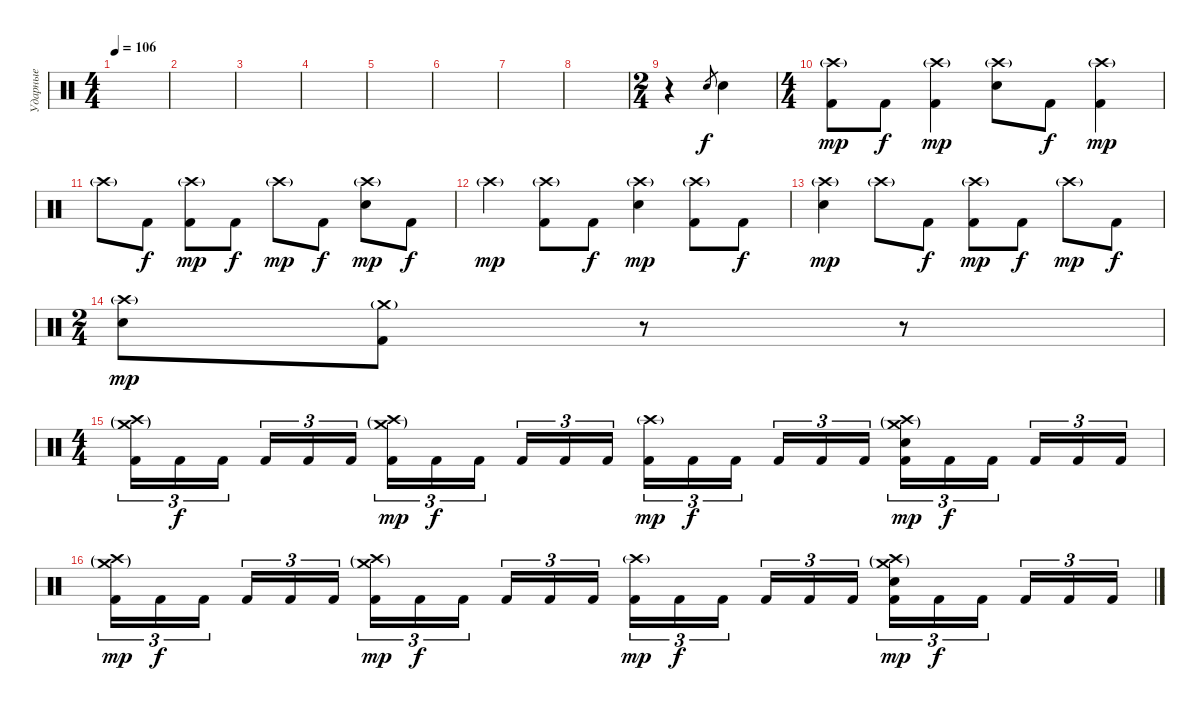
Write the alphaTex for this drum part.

\track ("Ударные" "Ударные") {instrument percussion}
\staff {score}
\articulation defaults
\ts (4 4)
\tempo 106
\tempo 140
\tempo 106
\clef neutral
\ks c
|
|
|
|
|
|
|
|
\ts (2 4)
r.4 "Electric Snare (hit)".8{gr} "Electric Snare (hit)".4 |
\ts (4 4)
("Crash high (hit)"{g} "Kick (hit) 2").8{dy mp} "Kick (hit) 2".8{dy f} ("Crash high (hit)"{g} "Kick (hit) 2").4{dy mp} ("Crash high (hit)"{g} "Electric Snare (hit)").8 "Kick (hit) 2".8{dy f} ("Crash high (hit)"{g} "Kick (hit) 2").4{dy mp} |
"Crash high (hit)"{g}.8 "Kick (hit) 2".8{dy f} ("Crash high (hit)"{g} "Kick (hit) 2").8{dy mp} "Kick (hit) 2".8{dy f} "Crash high (hit)"{g}.8{dy mp} "Kick (hit) 2".8{dy f} ("Crash high (hit)"{g} "Electric Snare (hit)").8{dy mp} "Kick (hit) 2".8{dy f} |
"Crash high (hit)"{g}.4{dy mp} ("Crash high (hit)"{g} "Kick (hit) 2").8 "Kick (hit) 2".8{dy f} ("Crash high (hit)"{g} "Electric Snare (hit)").4{dy mp} ("Crash high (hit)"{g} "Kick (hit) 2").8 "Kick (hit) 2".8{dy f} |
("Crash high (hit)"{g} "Electric Snare (hit)").4{dy mp} "Crash high (hit)"{g}.8 "Kick (hit) 2".8{dy f} ("Crash high (hit)"{g} "Kick (hit) 2").8{dy mp} "Kick (hit) 2".8{dy f} "Crash high (hit)"{g}.8{dy mp} "Kick (hit) 2".8{dy f} |
\ts (2 4)
("Crash high (hit)"{g} "Electric Snare (hit)").8{dy mp} ("Crash medium (hit)"{g} "Kick (hit) 2").8 r.8{volume 0} r.8 |
\ts (4 4)
("Crash high (hit)"{g} "Crash medium (hit)"{g} "Kick (hit) 2").16{tu (3 2) volume 16} "Kick (hit) 2".16{tu (3 2) dy f} "Kick (hit) 2".16{tu (3 2) beam splitsecondary} "Kick (hit) 2".16{tu (3 2)} "Kick (hit) 2".16{tu (3 2)} "Kick (hit) 2".16{tu (3 2)} ("Crash high (hit)"{g} "Crash medium (hit)"{g} "Kick (hit) 2").16{tu (3 2) dy mp} "Kick (hit) 2".16{tu (3 2) dy f} "Kick (hit) 2".16{tu (3 2) beam splitsecondary} "Kick (hit) 2".16{tu (3 2)} "Kick (hit) 2".16{tu (3 2)} "Kick (hit) 2".16{tu (3 2)} ("Crash high (hit)"{g} "Kick (hit) 2").16{tu (3 2) dy mp} "Kick (hit) 2".16{tu (3 2) dy f} "Kick (hit) 2".16{tu (3 2) beam splitsecondary} "Kick (hit) 2".16{tu (3 2)} "Kick (hit) 2".16{tu (3 2)} "Kick (hit) 2".16{tu (3 2)} ("Crash high (hit)"{g} "Crash medium (hit)"{g} "Electric Snare (hit)" "Kick (hit) 2").16{tu (3 2) dy mp} "Kick (hit) 2".16{tu (3 2) dy f} "Kick (hit) 2".16{tu (3 2) beam splitsecondary} "Kick (hit) 2".16{tu (3 2)} "Kick (hit) 2".16{tu (3 2)} "Kick (hit) 2".16{tu (3 2)} |
("Crash high (hit)"{g} "Crash medium (hit)"{g} "Kick (hit) 2").16{tu (3 2) dy mp} "Kick (hit) 2".16{tu (3 2) dy f} "Kick (hit) 2".16{tu (3 2) beam splitsecondary} "Kick (hit) 2".16{tu (3 2)} "Kick (hit) 2".16{tu (3 2)} "Kick (hit) 2".16{tu (3 2)} ("Crash high (hit)"{g} "Crash medium (hit)"{g} "Kick (hit) 2").16{tu (3 2) dy mp} "Kick (hit) 2".16{tu (3 2) dy f} "Kick (hit) 2".16{tu (3 2) beam splitsecondary} "Kick (hit) 2".16{tu (3 2)} "Kick (hit) 2".16{tu (3 2)} "Kick (hit) 2".16{tu (3 2)} ("Crash high (hit)"{g} "Kick (hit) 2").16{tu (3 2) dy mp} "Kick (hit) 2".16{tu (3 2) dy f} "Kick (hit) 2".16{tu (3 2) beam splitsecondary} "Kick (hit) 2".16{tu (3 2)} "Kick (hit) 2".16{tu (3 2)} "Kick (hit) 2".16{tu (3 2)} ("Crash high (hit)"{g} "Crash medium (hit)"{g} "Electric Snare (hit)" "Kick (hit) 2").16{tu (3 2) dy mp} "Kick (hit) 2".16{tu (3 2) dy f} "Kick (hit) 2".16{tu (3 2) beam splitsecondary} "Kick (hit) 2".16{tu (3 2)} "Kick (hit) 2".16{tu (3 2)} "Kick (hit) 2".16{tu (3 2)}
